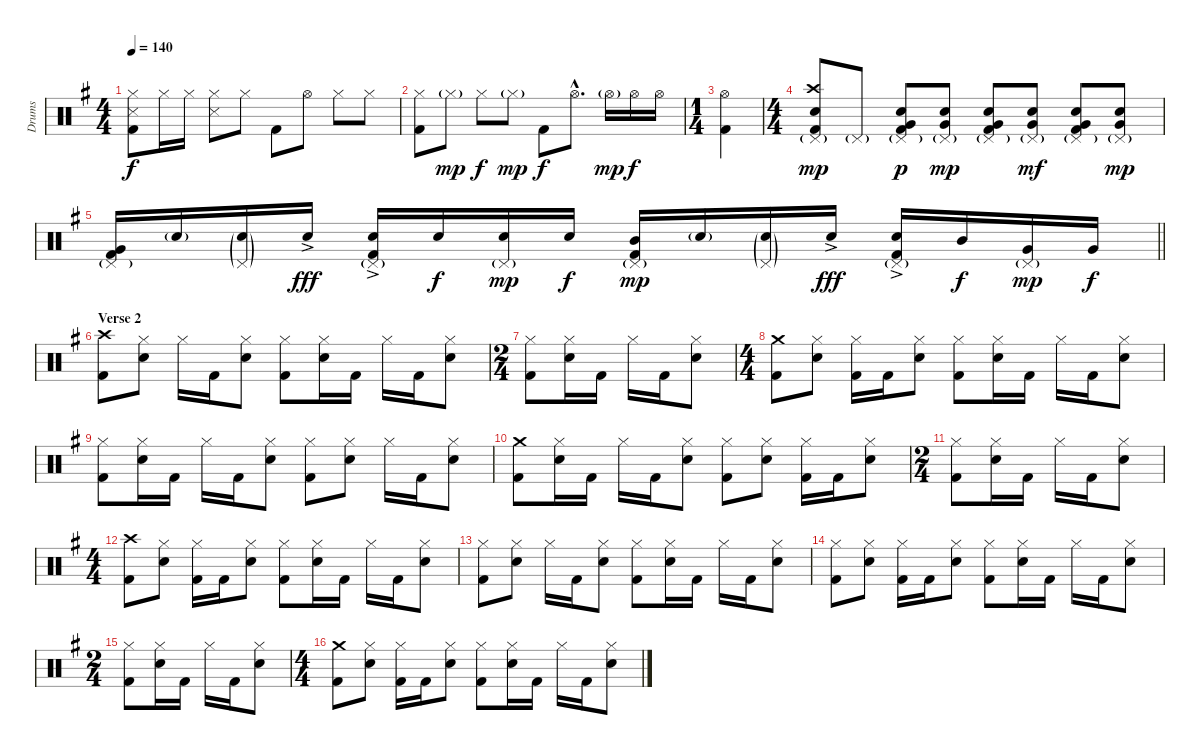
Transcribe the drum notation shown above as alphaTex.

\track ("Drums" "Drums") {instrument percussion}
\staff {score}
\articulation defaults
\ts (4 4)
\tempo 140
\clef neutral
\ks g
("Hi-Hat (closed)" "Snare (side stick) 3" "Kick (hit) 2").8{dy f} "Hi-Hat (closed)".16 "Hi-Hat (closed)".16 ("Hi-Hat (closed)" "Snare (side stick) 3").8 "Hi-Hat (closed)".8 "Kick (hit) 2".8 "Hi-Hat (open)".8 "Hi-Hat (closed)".8 "Hi-Hat (closed)".8 |
("Hi-Hat (closed)" "Kick (hit) 2").8 "Hi-Hat (closed)"{g}.8{dy mp} "Hi-Hat (closed)".8{dy f} "Hi-Hat (closed)"{g}.8{dy mp} "Kick (hit) 2".8{dy f} "Hi-Hat (open)"{hac}.8{d} "Hi-Hat (open)"{g}.16{dy mp} "Hi-Hat (open)".16{dy f} "Hi-Hat (open)".16 |
\ts (1 4)
("Hi-Hat (open)" "Kick (hit) 2").4 |
\ts (4 4)
("Crash high (hit)" "Pedal Hi-Hat (hit)"{g} "Electric Snare (hit)" "Kick (hit) 2").8{dy mp} "Pedal Hi-Hat (hit)"{g}.8 ("Pedal Hi-Hat (hit)"{g} "Electric Snare (hit)" "Very Low Tom (hit)" "Kick (hit) 2").8{dy p} ("Pedal Hi-Hat (hit)"{g} "Electric Snare (hit)" "Very Low Tom (hit)").8{dy mp} ("Pedal Hi-Hat (hit)"{g} "Electric Snare (hit)" "Very Low Tom (hit)" "Kick (hit) 2").8 ("Pedal Hi-Hat (hit)"{g} "Electric Snare (hit)" "Very Low Tom (hit)").8{dy mf} ("Pedal Hi-Hat (hit)"{g} "Electric Snare (hit)" "Very Low Tom (hit)" "Kick (hit) 2").8 ("Pedal Hi-Hat (hit)"{g} "Electric Snare (hit)" "Very Low Tom (hit)").8{dy mp} |
\barLineRight lightlight
("Pedal Hi-Hat (hit)"{g} "Very Low Tom (hit)" "Kick (hit) 2").16 "Electric Snare (hit)"{g}.16 ("Pedal Hi-Hat (hit)"{g} "Electric Snare (hit)"{g}).16 "Electric Snare (hit)"{ac}.16{dy fff} ("Pedal Hi-Hat (hit)"{g} "Electric Snare (hit)"{ac} "Kick (hit) 2").16 "Electric Snare (hit)".16{dy f} ("Pedal Hi-Hat (hit)"{g} "Electric Snare (hit)").16{dy mp} "Electric Snare (hit)".16{dy f} ("Pedal Hi-Hat (hit)"{g} "Mid Tom (hit)" "Kick (hit) 2").16{dy mp} "Electric Snare (hit)"{g}.16 ("Pedal Hi-Hat (hit)"{g} "Electric Snare (hit)"{g}).16 "Electric Snare (hit)"{ac}.16{dy fff} ("Pedal Hi-Hat (hit)"{g} "Electric Snare (hit)"{ac} "Kick (hit) 2").16 "Mid Tom (hit)".16{dy f} ("Pedal Hi-Hat (hit)"{g} "Very Low Tom (hit)").16{dy mp} "Very Low Tom (hit)".16{dy f} |
\section ("" "Verse 2")
("Crash high (hit)" "Kick (hit) 2").8 ("Hi-Hat (closed)" "Electric Snare (hit)").8 "Hi-Hat (closed)".16 "Kick (hit) 2".16 ("Hi-Hat (closed)" "Electric Snare (hit)").8 ("Hi-Hat (closed)" "Kick (hit) 2").8 ("Hi-Hat (closed)" "Electric Snare (hit)").16 "Kick (hit) 2".16 "Hi-Hat (closed)".16 "Kick (hit) 2".16 ("Hi-Hat (closed)" "Electric Snare (hit)").8 |
\ts (2 4)
("Hi-Hat (closed)" "Kick (hit) 2").8 ("Hi-Hat (closed)" "Electric Snare (hit)").16 "Kick (hit) 2".16 "Hi-Hat (closed)".16 "Kick (hit) 2".16 ("Hi-Hat (closed)" "Electric Snare (hit)").8 |
\ts (4 4)
("Crash medium (hit)" "Kick (hit) 2").8 ("Hi-Hat (closed)" "Electric Snare (hit)").8 ("Hi-Hat (closed)" "Kick (hit) 2").16 "Kick (hit) 2".16 ("Hi-Hat (closed)" "Electric Snare (hit)").8 ("Hi-Hat (closed)" "Kick (hit) 2").8 ("Hi-Hat (closed)" "Electric Snare (hit)").16 "Kick (hit) 2".16 "Hi-Hat (closed)".16 "Kick (hit) 2".16 ("Hi-Hat (closed)" "Electric Snare (hit)").8 |
("Hi-Hat (closed)" "Kick (hit) 2").8 ("Hi-Hat (closed)" "Electric Snare (hit)").16 "Kick (hit) 2".16 "Hi-Hat (closed)".16 "Kick (hit) 2".16 ("Hi-Hat (closed)" "Electric Snare (hit)").8 ("Hi-Hat (closed)" "Kick (hit) 2").8 ("Hi-Hat (closed)" "Electric Snare (hit)").8 "Hi-Hat (closed)".16 "Kick (hit) 2".16 ("Hi-Hat (closed)" "Electric Snare (hit)").8 |
("Crash medium (hit)" "Kick (hit) 2").8 ("Hi-Hat (closed)" "Electric Snare (hit)").16 "Kick (hit) 2".16 "Hi-Hat (closed)".16 "Kick (hit) 2".16 ("Hi-Hat (closed)" "Electric Snare (hit)").8 ("Hi-Hat (closed)" "Kick (hit) 2").8 ("Hi-Hat (closed)" "Electric Snare (hit)").8 ("Hi-Hat (closed)" "Kick (hit) 2").16 "Kick (hit) 2".16 ("Hi-Hat (closed)" "Electric Snare (hit)").8 |
\ts (2 4)
("Hi-Hat (closed)" "Kick (hit) 2").8 ("Hi-Hat (closed)" "Electric Snare (hit)").16 "Kick (hit) 2".16 "Hi-Hat (closed)".16 "Kick (hit) 2".16 ("Hi-Hat (closed)" "Electric Snare (hit)").8 |
\ts (4 4)
("Crash high (hit)" "Kick (hit) 2").8 ("Hi-Hat (closed)" "Electric Snare (hit)").8 ("Hi-Hat (closed)" "Kick (hit) 2").16 "Kick (hit) 2".16 ("Hi-Hat (closed)" "Electric Snare (hit)").8 ("Hi-Hat (closed)" "Kick (hit) 2").8 ("Hi-Hat (closed)" "Electric Snare (hit)").16 "Kick (hit) 2".16 "Hi-Hat (closed)".16 "Kick (hit) 2".16 ("Hi-Hat (closed)" "Electric Snare (hit)").8 |
("Hi-Hat (closed)" "Kick (hit) 2").8 ("Hi-Hat (closed)" "Electric Snare (hit)").8 "Hi-Hat (closed)".16 "Kick (hit) 2".16 ("Hi-Hat (closed)" "Electric Snare (hit)").8 ("Hi-Hat (closed)" "Kick (hit) 2").8 ("Hi-Hat (closed)" "Electric Snare (hit)").16 "Kick (hit) 2".16 "Hi-Hat (closed)".16 "Kick (hit) 2".16 ("Hi-Hat (closed)" "Electric Snare (hit)").8 |
("Hi-Hat (closed)" "Kick (hit) 2").8 ("Hi-Hat (closed)" "Electric Snare (hit)").8 ("Hi-Hat (closed)" "Kick (hit) 2").16 "Kick (hit) 2".16 ("Hi-Hat (closed)" "Electric Snare (hit)").8 ("Hi-Hat (closed)" "Kick (hit) 2").8 ("Hi-Hat (closed)" "Electric Snare (hit)").16 "Kick (hit) 2".16 "Hi-Hat (closed)".16 "Kick (hit) 2".16 ("Hi-Hat (closed)" "Electric Snare (hit)").8 |
\ts (2 4)
("Hi-Hat (closed)" "Kick (hit) 2").8 ("Hi-Hat (closed)" "Electric Snare (hit)").16 "Kick (hit) 2".16 "Hi-Hat (closed)".16 "Kick (hit) 2".16 ("Hi-Hat (closed)" "Electric Snare (hit)").8 |
\ts (4 4)
("Crash medium (hit)" "Kick (hit) 2").8 ("Hi-Hat (closed)" "Electric Snare (hit)").8 ("Hi-Hat (closed)" "Kick (hit) 2").16 "Kick (hit) 2".16 ("Hi-Hat (closed)" "Electric Snare (hit)").8 ("Hi-Hat (closed)" "Kick (hit) 2").8 ("Hi-Hat (closed)" "Electric Snare (hit)").16 "Kick (hit) 2".16 "Hi-Hat (closed)".16 "Kick (hit) 2".16 ("Hi-Hat (closed)" "Electric Snare (hit)").8
